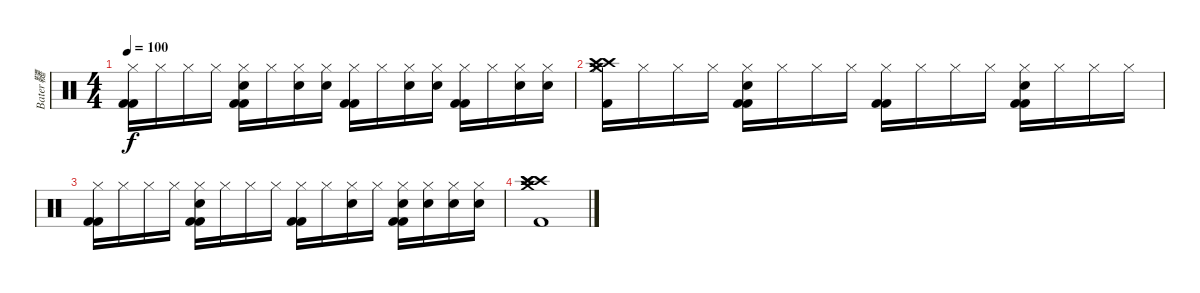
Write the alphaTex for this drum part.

\track ("Bater韆" "Bater韆") {instrument percussion}
\staff {score}
\articulation defaults
\ts (4 4)
\tempo 100
\clef neutral
\ks c
("Kick (hit) 2" "Kick (hit) 2" "Hi-Hat (closed)").16{dy f} "Hi-Hat (closed)".16 "Hi-Hat (closed)".16 "Hi-Hat (closed)".16 ("Kick (hit) 2" "Kick (hit) 2" "Electric Snare (hit)" "Hi-Hat (closed)").16 "Hi-Hat (closed)".16 ("Electric Snare (hit)" "Hi-Hat (closed)").16 ("Electric Snare (hit)" "Hi-Hat (closed)").16 ("Kick (hit) 2" "Kick (hit) 2" "Hi-Hat (closed)").16 "Hi-Hat (closed)".16 ("Electric Snare (hit)" "Hi-Hat (closed)").16 ("Electric Snare (hit)" "Hi-Hat (closed)").16 ("Kick (hit) 2" "Kick (hit) 2" "Hi-Hat (closed)").16 "Hi-Hat (closed)".16 ("Electric Snare (hit)" "Hi-Hat (closed)").16 ("Electric Snare (hit)" "Hi-Hat (closed)").16 |
("Crash high (hit)" "Crash high (hit)" "Crash medium (hit)" "Kick (hit) 2" "Hi-Hat (closed)").16 "Hi-Hat (closed)".16 "Hi-Hat (closed)".16 "Hi-Hat (closed)".16 ("Kick (hit) 2" "Kick (hit) 2" "Electric Snare (hit)" "Hi-Hat (closed)").16 "Hi-Hat (closed)".16 "Hi-Hat (closed)".16 "Hi-Hat (closed)".16 ("Kick (hit) 2" "Kick (hit) 2" "Hi-Hat (closed)").16 "Hi-Hat (closed)".16 "Hi-Hat (closed)".16 "Hi-Hat (closed)".16 ("Kick (hit) 2" "Kick (hit) 2" "Electric Snare (hit)" "Hi-Hat (closed)").16 "Hi-Hat (closed)".16 "Hi-Hat (closed)".16 "Hi-Hat (closed)".16 |
("Kick (hit) 2" "Kick (hit) 2" "Hi-Hat (closed)").16 "Hi-Hat (closed)".16 "Hi-Hat (closed)".16 "Hi-Hat (closed)".16 ("Kick (hit) 2" "Kick (hit) 2" "Electric Snare (hit)" "Hi-Hat (closed)").16 "Hi-Hat (closed)".16 "Hi-Hat (closed)".16 "Hi-Hat (closed)".16 ("Kick (hit) 2" "Kick (hit) 2" "Hi-Hat (closed)").16 "Hi-Hat (closed)".16 ("Electric Snare (hit)" "Hi-Hat (closed)").16 "Hi-Hat (closed)".16 ("Kick (hit) 2" "Kick (hit) 2" "Electric Snare (hit)" "Hi-Hat (closed)").16 ("Electric Snare (hit)" "Hi-Hat (closed)").16 ("Electric Snare (hit)" "Hi-Hat (closed)").16 ("Electric Snare (hit)" "Hi-Hat (closed)").16 |
("Crash high (hit)" "Crash high (hit)" "Crash high (hit)" "Crash medium (hit)" "Kick (hit) 2").1
